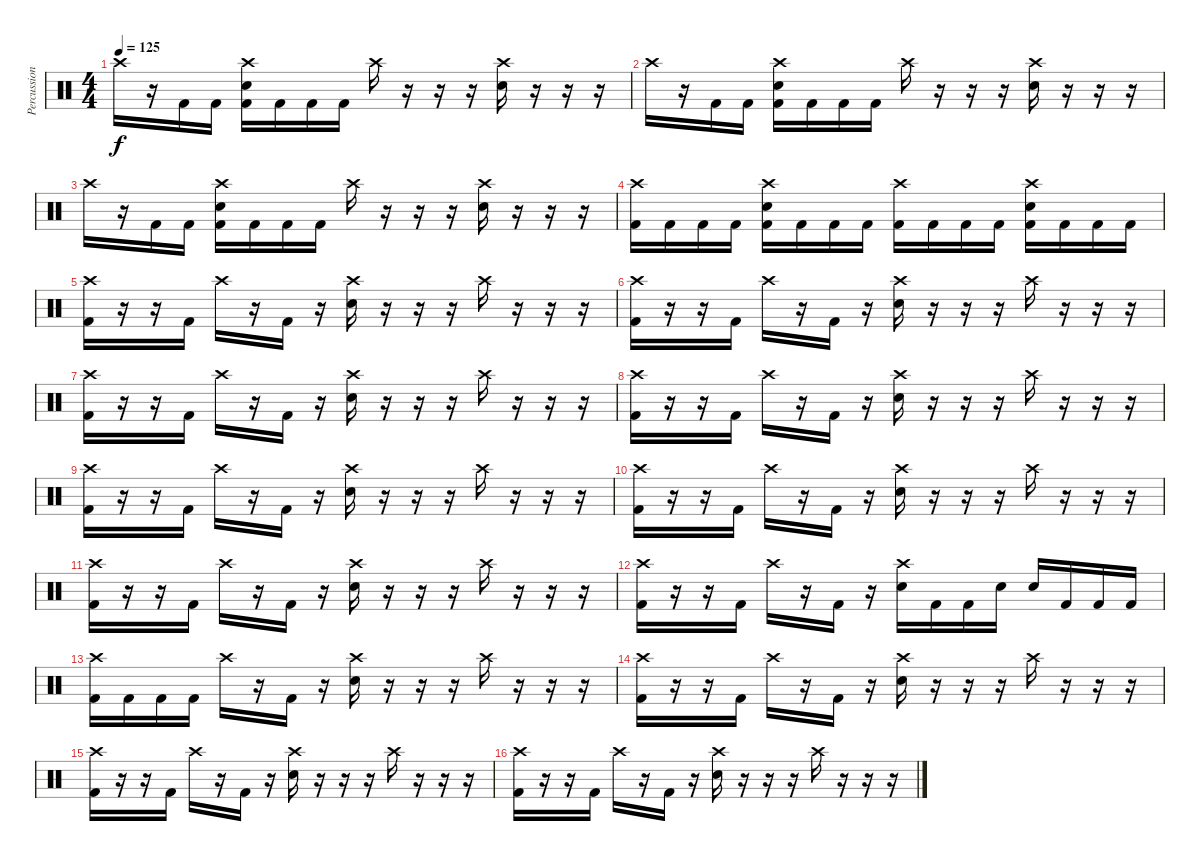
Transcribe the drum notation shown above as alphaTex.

\track ("Percussion" "Percussion") {instrument percussion}
\staff {score}
\articulation defaults
\ts (4 4)
\tempo 125
\clef neutral
\ks c "Crash high (hit)".16{dy f}
r.16 "Kick (hit) 2".16 "Kick (hit) 2".16 ("Crash high (hit)" "Snare (hit) 2" "Kick (hit) 2").16 "Kick (hit) 2".16 "Kick (hit) 2".16 "Kick (hit) 2".16 "Crash high (hit)".16 r.16 r.16 r.16 ("Crash high (hit)" "Snare (hit) 2").16 r.16 r.16 r.16 |
"Crash high (hit)".16 r.16 "Kick (hit) 2".16 "Kick (hit) 2".16 ("Crash high (hit)" "Snare (hit) 2" "Kick (hit) 2").16 "Kick (hit) 2".16 "Kick (hit) 2".16 "Kick (hit) 2".16 "Crash high (hit)".16 r.16 r.16 r.16 ("Crash high (hit)" "Snare (hit) 2").16 r.16 r.16 r.16 |
"Crash high (hit)".16 r.16 "Kick (hit) 2".16 "Kick (hit) 2".16 ("Crash high (hit)" "Snare (hit) 2" "Kick (hit) 2").16 "Kick (hit) 2".16 "Kick (hit) 2".16 "Kick (hit) 2".16 "Crash high (hit)".16 r.16 r.16 r.16 ("Crash high (hit)" "Snare (hit) 2").16 r.16 r.16 r.16 |
("Crash high (hit)" "Kick (hit) 2").16 "Kick (hit) 2".16 "Kick (hit) 2".16 "Kick (hit) 2".16 ("Crash high (hit)" "Snare (hit) 2" "Kick (hit) 2").16 "Kick (hit) 2".16 "Kick (hit) 2".16 "Kick (hit) 2".16 ("Crash high (hit)" "Kick (hit) 2").16 "Kick (hit) 2".16 "Kick (hit) 2".16 "Kick (hit) 2".16 ("Crash high (hit)" "Snare (hit) 2" "Kick (hit) 2").16 "Kick (hit) 2".16 "Kick (hit) 2".16 "Kick (hit) 2".16 |
("Crash high (hit)" "Kick (hit) 2").16 r.16 r.16 "Kick (hit) 2".16 "Crash high (hit)".16 r.16 "Kick (hit) 2".16 r.16 ("Crash high (hit)" "Snare (hit) 2").16 r.16 r.16 r.16 "Crash high (hit)".16 r.16 r.16 r.16 |
("Crash high (hit)" "Kick (hit) 2").16 r.16 r.16 "Kick (hit) 2".16 "Crash high (hit)".16 r.16 "Kick (hit) 2".16 r.16 ("Crash high (hit)" "Snare (hit) 2").16 r.16 r.16 r.16 "Crash high (hit)".16 r.16 r.16 r.16 |
("Crash high (hit)" "Kick (hit) 2").16 r.16 r.16 "Kick (hit) 2".16 "Crash high (hit)".16 r.16 "Kick (hit) 2".16 r.16 ("Crash high (hit)" "Snare (hit) 2").16 r.16 r.16 r.16 "Crash high (hit)".16 r.16 r.16 r.16 |
("Crash high (hit)" "Kick (hit) 2").16 r.16 r.16 "Kick (hit) 2".16 "Crash high (hit)".16 r.16 "Kick (hit) 2".16 r.16 ("Crash high (hit)" "Snare (hit) 2").16 r.16 r.16 r.16 "Crash high (hit)".16 r.16 r.16 r.16 |
("Crash high (hit)" "Kick (hit) 2").16 r.16 r.16 "Kick (hit) 2".16 "Crash high (hit)".16 r.16 "Kick (hit) 2".16 r.16 ("Crash high (hit)" "Snare (hit) 2").16 r.16 r.16 r.16 "Crash high (hit)".16 r.16 r.16 r.16 |
("Crash high (hit)" "Kick (hit) 2").16 r.16 r.16 "Kick (hit) 2".16 "Crash high (hit)".16 r.16 "Kick (hit) 2".16 r.16 ("Crash high (hit)" "Snare (hit) 2").16 r.16 r.16 r.16 "Crash high (hit)".16 r.16 r.16 r.16 |
("Crash high (hit)" "Kick (hit) 2").16 r.16 r.16 "Kick (hit) 2".16 "Crash high (hit)".16 r.16 "Kick (hit) 2".16 r.16 ("Crash high (hit)" "Snare (hit) 2").16 r.16 r.16 r.16 "Crash high (hit)".16 r.16 r.16 r.16 |
("Crash high (hit)" "Kick (hit) 2").16 r.16 r.16 "Kick (hit) 2".16 "Crash high (hit)".16 r.16 "Kick (hit) 2".16 r.16 ("Crash high (hit)" "Snare (hit) 2").16 "Kick (hit) 2".16 "Kick (hit) 2".16 "Snare (hit) 2".16 "Snare (hit) 2".16 "Kick (hit) 2".16 "Kick (hit) 2".16 "Kick (hit) 2".16 |
("Crash high (hit)" "Kick (hit) 2").16 "Kick (hit) 2".16 "Kick (hit) 2".16 "Kick (hit) 2".16 "Crash high (hit)".16 r.16 "Kick (hit) 2".16 r.16 ("Crash high (hit)" "Snare (hit) 2").16 r.16 r.16 r.16 "Crash high (hit)".16 r.16 r.16 r.16 |
("Crash high (hit)" "Kick (hit) 2").16 r.16 r.16 "Kick (hit) 2".16 "Crash high (hit)".16 r.16 "Kick (hit) 2".16 r.16 ("Crash high (hit)" "Snare (hit) 2").16 r.16 r.16 r.16 "Crash high (hit)".16 r.16 r.16 r.16 |
("Crash high (hit)" "Kick (hit) 2").16 r.16 r.16 "Kick (hit) 2".16 "Crash high (hit)".16 r.16 "Kick (hit) 2".16 r.16 ("Crash high (hit)" "Snare (hit) 2").16 r.16 r.16 r.16 "Crash high (hit)".16 r.16 r.16 r.16 |
("Crash high (hit)" "Kick (hit) 2").16 r.16 r.16 "Kick (hit) 2".16 "Crash high (hit)".16 r.16 "Kick (hit) 2".16 r.16 ("Crash high (hit)" "Snare (hit) 2").16 r.16 r.16 r.16 "Crash high (hit)".16 r.16 r.16 r.16
